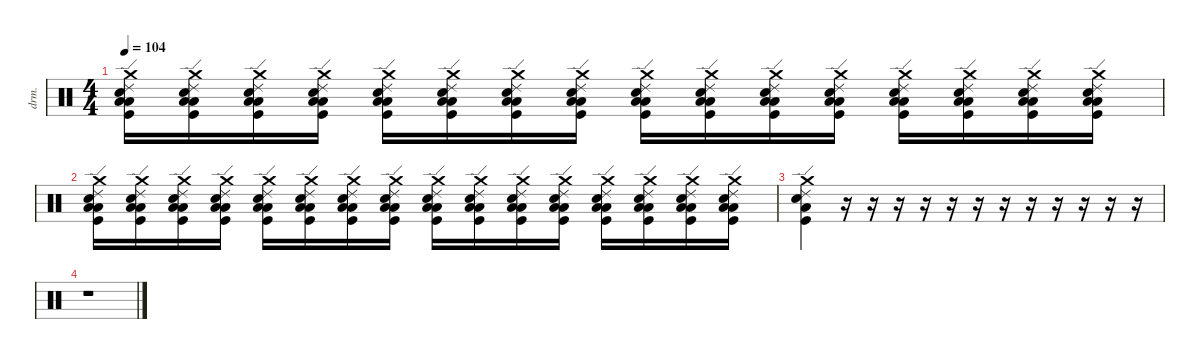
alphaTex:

\defaultSystemsLayout 4
\hideDynamics
\bracketExtendMode nobrackets
\otherSystemsTrackNameOrientation horizontal
\track ("Drums" "drm.") {instrument percussion}
\staff {score}
\articulation defaults
\ts (4 4)
\tempo 104
\clef neutral
\ks c
("Low Floor Tom (hit)" "Ride (edge) 2" "Crash medium (hit)" "Low Tom (hit)" "Snare (hit) 2" "Kick (hit)").16{dy f beam Down} ("Low Floor Tom (hit)" "Ride (edge) 2" "Crash medium (hit)" "Low Tom (hit)" "Snare (hit) 2" "Kick (hit)").16{beam Down} ("Low Floor Tom (hit)" "Ride (edge) 2" "Crash medium (hit)" "Low Tom (hit)" "Snare (hit) 2" "Kick (hit)").16{beam Down} ("Low Floor Tom (hit)" "Ride (edge) 2" "Crash medium (hit)" "Low Tom (hit)" "Snare (hit) 2" "Kick (hit)").16{beam Down} ("Low Floor Tom (hit)" "Ride (edge) 2" "Crash medium (hit)" "Low Tom (hit)" "Snare (hit) 2" "Kick (hit)").16{beam Down} ("Low Floor Tom (hit)" "Ride (edge) 2" "Crash medium (hit)" "Low Tom (hit)" "Snare (hit) 2" "Kick (hit)").16{beam Down} ("Low Floor Tom (hit)" "Ride (edge) 2" "Crash medium (hit)" "Low Tom (hit)" "Snare (hit) 2" "Kick (hit)").16{beam Down} ("Low Floor Tom (hit)" "Ride (edge) 2" "Crash medium (hit)" "Low Tom (hit)" "Snare (hit) 2" "Kick (hit)").16{beam Down} ("Low Floor Tom (hit)" "Ride (edge) 2" "Crash medium (hit)" "Low Tom (hit)" "Snare (hit) 2" "Kick (hit)").16{beam Down} ("Low Floor Tom (hit)" "Ride (edge) 2" "Crash medium (hit)" "Low Tom (hit)" "Snare (hit) 2" "Kick (hit)").16{beam Down} ("Low Floor Tom (hit)" "Ride (edge) 2" "Crash medium (hit)" "Low Tom (hit)" "Snare (hit) 2" "Kick (hit)").16{beam Down} ("Low Floor Tom (hit)" "Ride (edge) 2" "Crash medium (hit)" "Low Tom (hit)" "Snare (hit) 2" "Kick (hit)").16{beam Down} ("Low Floor Tom (hit)" "Ride (edge) 2" "Crash medium (hit)" "Low Tom (hit)" "Snare (hit) 2" "Kick (hit)").16{beam Down} ("Low Floor Tom (hit)" "Ride (edge) 2" "Crash medium (hit)" "Low Tom (hit)" "Snare (hit) 2" "Kick (hit)").16{beam Down} ("Low Floor Tom (hit)" "Ride (edge) 2" "Crash medium (hit)" "Low Tom (hit)" "Snare (hit) 2" "Kick (hit)").16{beam Down} ("Low Floor Tom (hit)" "Ride (edge) 2" "Crash medium (hit)" "Low Tom (hit)" "Snare (hit) 2" "Kick (hit)").16{beam Down} |
("Low Floor Tom (hit)" "Ride (edge) 2" "Crash medium (hit)" "Low Tom (hit)" "Snare (hit) 2" "Kick (hit)").16{beam Down} ("Low Floor Tom (hit)" "Ride (edge) 2" "Crash medium (hit)" "Low Tom (hit)" "Snare (hit) 2" "Kick (hit)").16{beam Down} ("Low Floor Tom (hit)" "Ride (edge) 2" "Crash medium (hit)" "Low Tom (hit)" "Snare (hit) 2" "Kick (hit)").16{beam Down} ("Low Floor Tom (hit)" "Ride (edge) 2" "Crash medium (hit)" "Low Tom (hit)" "Snare (hit) 2" "Kick (hit)").16{beam Down} ("Low Floor Tom (hit)" "Ride (edge) 2" "Crash medium (hit)" "Low Tom (hit)" "Snare (hit) 2" "Kick (hit)").16{beam Down} ("Low Floor Tom (hit)" "Ride (edge) 2" "Crash medium (hit)" "Low Tom (hit)" "Snare (hit) 2" "Kick (hit)").16{beam Down} ("Low Floor Tom (hit)" "Ride (edge) 2" "Crash medium (hit)" "Low Tom (hit)" "Snare (hit) 2" "Kick (hit)").16{beam Down} ("Low Floor Tom (hit)" "Ride (edge) 2" "Crash medium (hit)" "Low Tom (hit)" "Snare (hit) 2" "Kick (hit)").16{beam Down} ("Low Floor Tom (hit)" "Ride (edge) 2" "Crash medium (hit)" "Low Tom (hit)" "Snare (hit) 2" "Kick (hit)").16{beam Down} ("Low Floor Tom (hit)" "Ride (edge) 2" "Crash medium (hit)" "Low Tom (hit)" "Snare (hit) 2" "Kick (hit)").16{beam Down} ("Low Floor Tom (hit)" "Ride (edge) 2" "Crash medium (hit)" "Low Tom (hit)" "Snare (hit) 2" "Kick (hit)").16{beam Down} ("Low Floor Tom (hit)" "Ride (edge) 2" "Crash medium (hit)" "Low Tom (hit)" "Snare (hit) 2" "Kick (hit)").16{beam Down} ("Low Floor Tom (hit)" "Ride (edge) 2" "Crash medium (hit)" "Low Tom (hit)" "Snare (hit) 2" "Kick (hit)").16{beam Down} ("Low Floor Tom (hit)" "Ride (edge) 2" "Crash medium (hit)" "Low Tom (hit)" "Snare (hit) 2" "Kick (hit)").16{beam Down} ("Low Floor Tom (hit)" "Ride (edge) 2" "Crash medium (hit)" "Low Tom (hit)" "Snare (hit) 2" "Kick (hit)").16{beam Down} ("Low Floor Tom (hit)" "Ride (edge) 2" "Crash medium (hit)" "Low Tom (hit)" "Snare (hit) 2" "Kick (hit)").16{beam Down} |
("Low Floor Tom (hit)" "Ride (edge) 2" "Crash medium (hit)" "Snare (hit) 2" "Kick (hit)").4{beam Down} r.16{beam Down} r.16{beam Down} r.16{beam Down} r.16{beam Down} r.16{beam Down} r.16{beam Down} r.16{beam Down} r.16{beam Down} r.16{beam Down} r.16{beam Down} r.16{beam Down} r.16{beam Down} |
r.1{beam Down}
